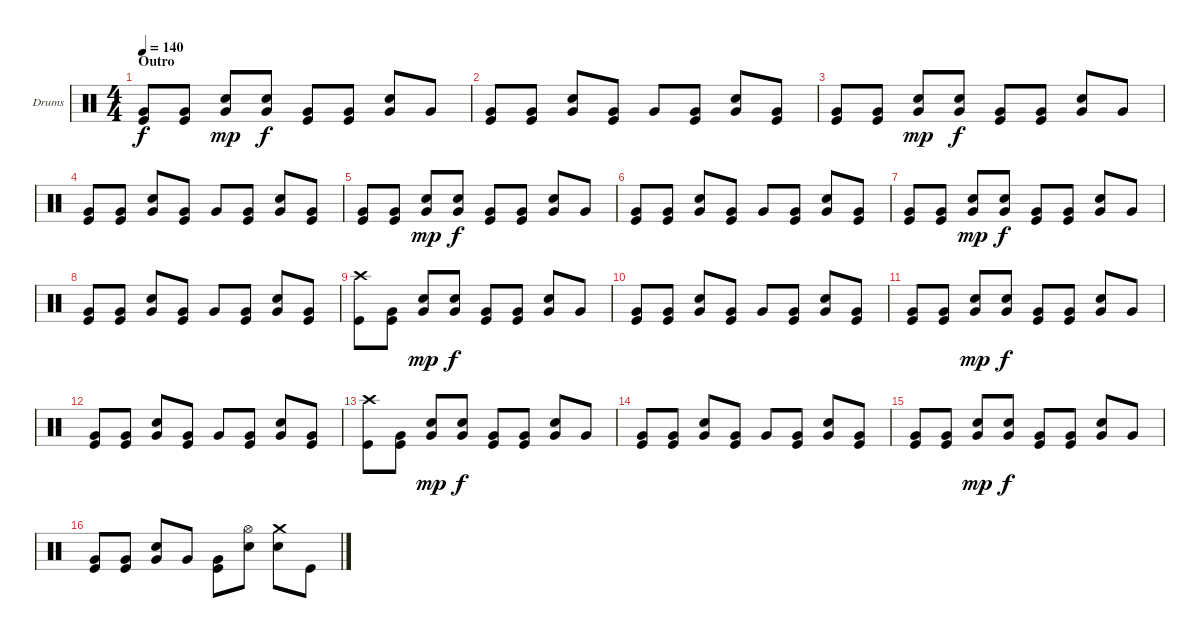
\bracketExtendMode groupsimilarinstruments
\firstSystemTrackNameOrientation horizontal
\otherSystemsTrackNameOrientation horizontal
\track ("Drumkit" "Drums") {instrument percussion}
\staff {score}
\articulation defaults
\ts (4 4)
\section ("" "Outro")
\tempo 140
\clef neutral
\ks c
("Very Low Tom (hit)" "Kick (hit)").8{dy f} ("Very Low Tom (hit)" "Kick (hit)").8 ("Very Low Tom (hit)" "Snare (hit) 2").8{dy mp} ("Very Low Tom (hit)" "Snare (hit) 2").8{dy f} ("Very Low Tom (hit)" "Kick (hit)").8 ("Very Low Tom (hit)" "Kick (hit)").8 ("Very Low Tom (hit)" "Snare (hit) 2").8 "Very Low Tom (hit)".8 |
("Very Low Tom (hit)" "Kick (hit)").8 ("Very Low Tom (hit)" "Kick (hit)").8 ("Very Low Tom (hit)" "Snare (hit) 2").8 ("Very Low Tom (hit)" "Kick (hit)").8 "Very Low Tom (hit)".8 ("Very Low Tom (hit)" "Kick (hit)").8 ("Very Low Tom (hit)" "Snare (hit) 2").8 ("Very Low Tom (hit)" "Kick (hit)").8 |
("Very Low Tom (hit)" "Kick (hit)").8 ("Very Low Tom (hit)" "Kick (hit)").8 ("Very Low Tom (hit)" "Snare (hit) 2").8{dy mp} ("Very Low Tom (hit)" "Snare (hit) 2").8{dy f} ("Very Low Tom (hit)" "Kick (hit)").8 ("Very Low Tom (hit)" "Kick (hit)").8 ("Very Low Tom (hit)" "Snare (hit) 2").8 "Very Low Tom (hit)".8 |
("Very Low Tom (hit)" "Kick (hit)").8 ("Very Low Tom (hit)" "Kick (hit)").8 ("Very Low Tom (hit)" "Snare (hit) 2").8 ("Very Low Tom (hit)" "Kick (hit)").8 "Very Low Tom (hit)".8 ("Very Low Tom (hit)" "Kick (hit)").8 ("Very Low Tom (hit)" "Snare (hit) 2").8 ("Very Low Tom (hit)" "Kick (hit)").8 |
("Very Low Tom (hit)" "Kick (hit)").8 ("Very Low Tom (hit)" "Kick (hit)").8 ("Very Low Tom (hit)" "Snare (hit) 2").8{dy mp} ("Very Low Tom (hit)" "Snare (hit) 2").8{dy f} ("Very Low Tom (hit)" "Kick (hit)").8 ("Very Low Tom (hit)" "Kick (hit)").8 ("Very Low Tom (hit)" "Snare (hit) 2").8 "Very Low Tom (hit)".8 |
("Very Low Tom (hit)" "Kick (hit)").8 ("Very Low Tom (hit)" "Kick (hit)").8 ("Very Low Tom (hit)" "Snare (hit) 2").8 ("Very Low Tom (hit)" "Kick (hit)").8 "Very Low Tom (hit)".8 ("Very Low Tom (hit)" "Kick (hit)").8 ("Very Low Tom (hit)" "Snare (hit) 2").8 ("Very Low Tom (hit)" "Kick (hit)").8 |
("Very Low Tom (hit)" "Kick (hit)").8 ("Very Low Tom (hit)" "Kick (hit)").8 ("Very Low Tom (hit)" "Snare (hit) 2").8{dy mp} ("Very Low Tom (hit)" "Snare (hit) 2").8{dy f} ("Very Low Tom (hit)" "Kick (hit)").8 ("Very Low Tom (hit)" "Kick (hit)").8 ("Very Low Tom (hit)" "Snare (hit) 2").8 "Very Low Tom (hit)".8 |
("Very Low Tom (hit)" "Kick (hit)").8 ("Very Low Tom (hit)" "Kick (hit)").8 ("Very Low Tom (hit)" "Snare (hit) 2").8 ("Very Low Tom (hit)" "Kick (hit)").8 "Very Low Tom (hit)".8 ("Very Low Tom (hit)" "Kick (hit)").8 ("Very Low Tom (hit)" "Snare (hit) 2").8 ("Very Low Tom (hit)" "Kick (hit)").8 |
("Crash high (hit)" "Kick (hit)").8 ("Very Low Tom (hit)" "Kick (hit)").8 ("Very Low Tom (hit)" "Snare (hit) 2").8{dy mp} ("Very Low Tom (hit)" "Snare (hit) 2").8{dy f} ("Very Low Tom (hit)" "Kick (hit)").8 ("Very Low Tom (hit)" "Kick (hit)").8 ("Very Low Tom (hit)" "Snare (hit) 2").8 "Very Low Tom (hit)".8 |
("Very Low Tom (hit)" "Kick (hit)").8 ("Very Low Tom (hit)" "Kick (hit)").8 ("Very Low Tom (hit)" "Snare (hit) 2").8 ("Very Low Tom (hit)" "Kick (hit)").8 "Very Low Tom (hit)".8 ("Very Low Tom (hit)" "Kick (hit)").8 ("Very Low Tom (hit)" "Snare (hit) 2").8 ("Very Low Tom (hit)" "Kick (hit)").8 |
("Very Low Tom (hit)" "Kick (hit)").8 ("Very Low Tom (hit)" "Kick (hit)").8 ("Very Low Tom (hit)" "Snare (hit) 2").8{dy mp} ("Very Low Tom (hit)" "Snare (hit) 2").8{dy f} ("Very Low Tom (hit)" "Kick (hit)").8 ("Very Low Tom (hit)" "Kick (hit)").8 ("Very Low Tom (hit)" "Snare (hit) 2").8 "Very Low Tom (hit)".8 |
("Very Low Tom (hit)" "Kick (hit)").8 ("Very Low Tom (hit)" "Kick (hit)").8 ("Very Low Tom (hit)" "Snare (hit) 2").8 ("Very Low Tom (hit)" "Kick (hit)").8 "Very Low Tom (hit)".8 ("Very Low Tom (hit)" "Kick (hit)").8 ("Very Low Tom (hit)" "Snare (hit) 2").8 ("Very Low Tom (hit)" "Kick (hit)").8 |
("Crash high (hit)" "Kick (hit)").8 ("Very Low Tom (hit)" "Kick (hit)").8 ("Very Low Tom (hit)" "Snare (hit) 2").8{dy mp} ("Very Low Tom (hit)" "Snare (hit) 2").8{dy f} ("Very Low Tom (hit)" "Kick (hit)").8 ("Very Low Tom (hit)" "Kick (hit)").8 ("Very Low Tom (hit)" "Snare (hit) 2").8 "Very Low Tom (hit)".8 |
("Very Low Tom (hit)" "Kick (hit)").8 ("Very Low Tom (hit)" "Kick (hit)").8 ("Very Low Tom (hit)" "Snare (hit) 2").8 ("Very Low Tom (hit)" "Kick (hit)").8 "Very Low Tom (hit)".8 ("Very Low Tom (hit)" "Kick (hit)").8 ("Very Low Tom (hit)" "Snare (hit) 2").8 ("Very Low Tom (hit)" "Kick (hit)").8 |
("Very Low Tom (hit)" "Kick (hit)").8 ("Very Low Tom (hit)" "Kick (hit)").8 ("Very Low Tom (hit)" "Snare (hit) 2").8{dy mp} ("Very Low Tom (hit)" "Snare (hit) 2").8{dy f} ("Very Low Tom (hit)" "Kick (hit)").8 ("Very Low Tom (hit)" "Kick (hit)").8 ("Very Low Tom (hit)" "Snare (hit) 2").8 "Very Low Tom (hit)".8 |
("Very Low Tom (hit)" "Kick (hit)").8 ("Very Low Tom (hit)" "Kick (hit)").8 ("Very Low Tom (hit)" "Snare (hit) 2").8 "Very Low Tom (hit)".8 ("Very Low Tom (hit)" "Kick (hit)").8 ("Hi-Hat (open)" "Snare (hit) 2").8 ("Crash medium (hit)" "Snare (hit) 2").8 "Kick (hit)".8
